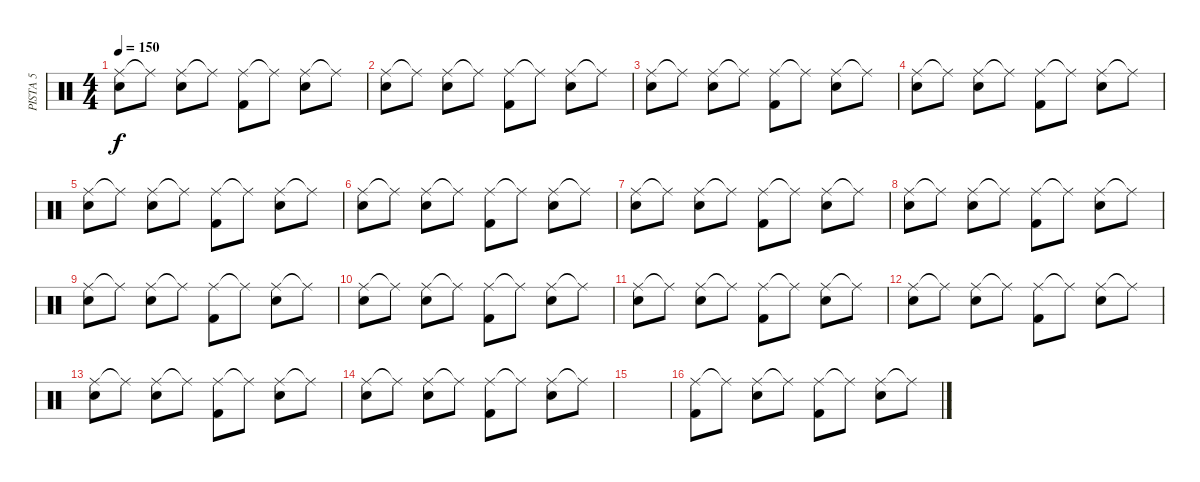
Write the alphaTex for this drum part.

\track ("PISTA 5" "PISTA 5") {instrument percussion}
\staff {score}
\articulation defaults
\ts (4 4)
\tempo 150
\clef neutral
\ks c
("Ride (middle)" "Snare (hit)").8{dy f} "Ride (middle)"{t}.8 ("Ride (middle)" "Electric Snare (hit)").8 "Ride (middle)"{t}.8 ("Ride (middle)" "Kick (hit) 2").8 "Ride (middle)"{t}.8 ("Ride (middle)" "Electric Snare (hit)").8 "Ride (middle)"{t}.8 |
("Ride (middle)" "Snare (hit)").8 "Ride (middle)"{t}.8 ("Ride (middle)" "Electric Snare (hit)").8 "Ride (middle)"{t}.8 ("Ride (middle)" "Kick (hit) 2").8 "Ride (middle)"{t}.8 ("Ride (middle)" "Electric Snare (hit)").8 "Ride (middle)"{t}.8 |
("Ride (middle)" "Snare (hit)").8 "Ride (middle)"{t}.8 ("Ride (middle)" "Electric Snare (hit)").8 "Ride (middle)"{t}.8 ("Ride (middle)" "Kick (hit) 2").8 "Ride (middle)"{t}.8 ("Ride (middle)" "Electric Snare (hit)").8 "Ride (middle)"{t}.8 |
("Ride (middle)" "Snare (hit)").8 "Ride (middle)"{t}.8 ("Ride (middle)" "Electric Snare (hit)").8 "Ride (middle)"{t}.8 ("Ride (middle)" "Kick (hit) 2").8 "Ride (middle)"{t}.8 ("Ride (middle)" "Electric Snare (hit)").8 "Ride (middle)"{t}.8 |
("Ride (middle)" "Snare (hit)").8 "Ride (middle)"{t}.8 ("Ride (middle)" "Electric Snare (hit)").8 "Ride (middle)"{t}.8 ("Ride (middle)" "Kick (hit) 2").8 "Ride (middle)"{t}.8 ("Ride (middle)" "Electric Snare (hit)").8 "Ride (middle)"{t}.8 |
("Ride (middle)" "Snare (hit)").8 "Ride (middle)"{t}.8 ("Ride (middle)" "Electric Snare (hit)").8 "Ride (middle)"{t}.8 ("Ride (middle)" "Kick (hit) 2").8 "Ride (middle)"{t}.8 ("Ride (middle)" "Electric Snare (hit)").8 "Ride (middle)"{t}.8 |
("Ride (middle)" "Snare (hit)").8 "Ride (middle)"{t}.8 ("Ride (middle)" "Electric Snare (hit)").8 "Ride (middle)"{t}.8 ("Ride (middle)" "Kick (hit) 2").8 "Ride (middle)"{t}.8 ("Ride (middle)" "Electric Snare (hit)").8 "Ride (middle)"{t}.8 |
("Ride (middle)" "Snare (hit)").8 "Ride (middle)"{t}.8 ("Ride (middle)" "Electric Snare (hit)").8 "Ride (middle)"{t}.8 ("Ride (middle)" "Kick (hit) 2").8 "Ride (middle)"{t}.8 ("Ride (middle)" "Electric Snare (hit)").8 "Ride (middle)"{t}.8 |
("Ride (middle)" "Snare (hit)").8 "Ride (middle)"{t}.8 ("Ride (middle)" "Electric Snare (hit)").8 "Ride (middle)"{t}.8 ("Ride (middle)" "Kick (hit) 2").8 "Ride (middle)"{t}.8 ("Ride (middle)" "Electric Snare (hit)").8 "Ride (middle)"{t}.8 |
("Ride (middle)" "Snare (hit)").8 "Ride (middle)"{t}.8 ("Ride (middle)" "Electric Snare (hit)").8 "Ride (middle)"{t}.8 ("Ride (middle)" "Kick (hit) 2").8 "Ride (middle)"{t}.8 ("Ride (middle)" "Electric Snare (hit)").8 "Ride (middle)"{t}.8 |
("Ride (middle)" "Snare (hit)").8 "Ride (middle)"{t}.8 ("Ride (middle)" "Electric Snare (hit)").8 "Ride (middle)"{t}.8 ("Ride (middle)" "Kick (hit) 2").8 "Ride (middle)"{t}.8 ("Ride (middle)" "Electric Snare (hit)").8 "Ride (middle)"{t}.8 |
("Ride (middle)" "Snare (hit)").8 "Ride (middle)"{t}.8 ("Ride (middle)" "Electric Snare (hit)").8 "Ride (middle)"{t}.8 ("Ride (middle)" "Kick (hit) 2").8 "Ride (middle)"{t}.8 ("Ride (middle)" "Electric Snare (hit)").8 "Ride (middle)"{t}.8 |
("Ride (middle)" "Snare (hit)").8 "Ride (middle)"{t}.8 ("Ride (middle)" "Electric Snare (hit)").8 "Ride (middle)"{t}.8 ("Ride (middle)" "Kick (hit) 2").8 "Ride (middle)"{t}.8 ("Ride (middle)" "Electric Snare (hit)").8 "Ride (middle)"{t}.8 |
("Ride (middle)" "Snare (hit)").8 "Ride (middle)"{t}.8 ("Ride (middle)" "Electric Snare (hit)").8 "Ride (middle)"{t}.8 ("Ride (middle)" "Kick (hit) 2").8 "Ride (middle)"{t}.8 ("Ride (middle)" "Electric Snare (hit)").8 "Ride (middle)"{t}.8 |
|
("Ride (middle)" "Kick (hit) 2").8 "Ride (middle)"{t}.8 ("Ride (middle)" "Electric Snare (hit)").8 "Ride (middle)"{t}.8 ("Ride (middle)" "Kick (hit) 2").8 "Ride (middle)"{t}.8 ("Ride (middle)" "Electric Snare (hit)").8 "Ride (middle)"{t}.8
